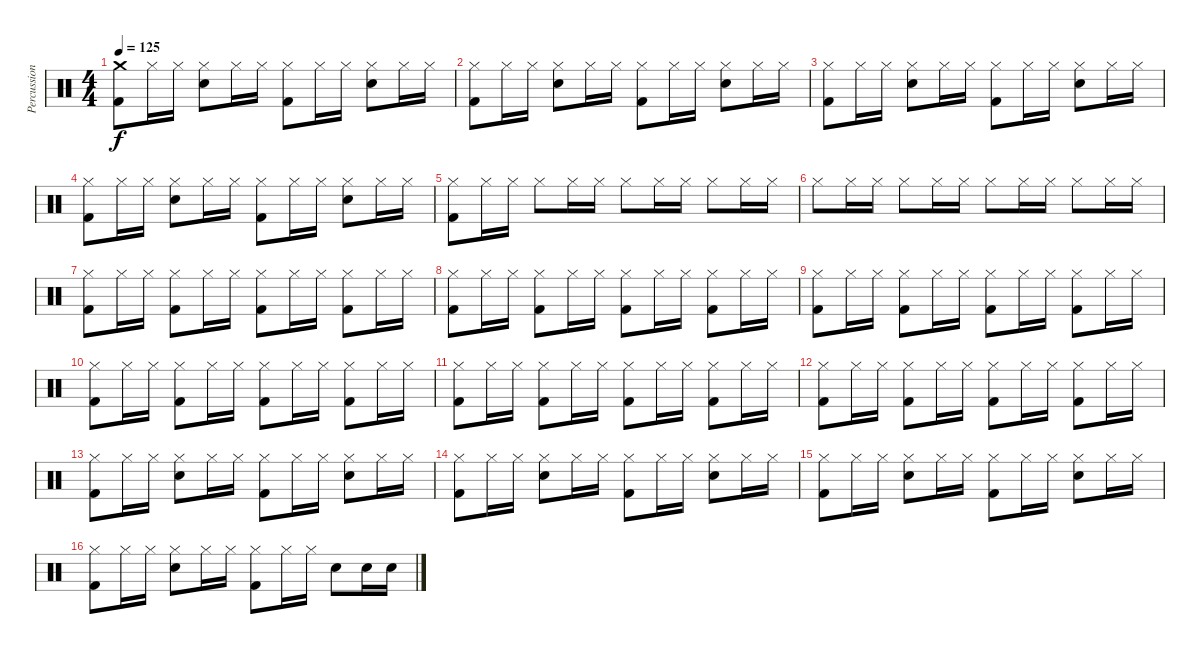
\track ("Percussion" "Percussion") {instrument percussion}
\staff {score}
\articulation defaults
\ts (4 4)
\tempo 125
\clef neutral
\ks c
("Crash medium (hit)" "Kick (hit) 2").8{dy f} "Hi-Hat (closed)".16 "Hi-Hat (closed)".16 ("Hi-Hat (closed)" "Snare (hit) 2").8 "Hi-Hat (closed)".16 "Hi-Hat (closed)".16 ("Hi-Hat (closed)" "Kick (hit) 2").8 "Hi-Hat (closed)".16 "Hi-Hat (closed)".16 ("Hi-Hat (closed)" "Snare (hit) 2").8 "Hi-Hat (closed)".16 "Hi-Hat (closed)".16 |
("Hi-Hat (closed)" "Kick (hit) 2").8 "Hi-Hat (closed)".16 "Hi-Hat (closed)".16 ("Hi-Hat (closed)" "Snare (hit) 2").8 "Hi-Hat (closed)".16 "Hi-Hat (closed)".16 ("Hi-Hat (closed)" "Kick (hit) 2").8 "Hi-Hat (closed)".16 "Hi-Hat (closed)".16 ("Hi-Hat (closed)" "Snare (hit) 2").8 "Hi-Hat (closed)".16 "Hi-Hat (closed)".16 |
("Hi-Hat (closed)" "Kick (hit) 2").8 "Hi-Hat (closed)".16 "Hi-Hat (closed)".16 ("Hi-Hat (closed)" "Snare (hit) 2").8 "Hi-Hat (closed)".16 "Hi-Hat (closed)".16 ("Hi-Hat (closed)" "Kick (hit) 2").8 "Hi-Hat (closed)".16 "Hi-Hat (closed)".16 ("Hi-Hat (closed)" "Snare (hit) 2").8 "Hi-Hat (closed)".16 "Hi-Hat (closed)".16 |
("Hi-Hat (closed)" "Kick (hit) 2").8 "Hi-Hat (closed)".16 "Hi-Hat (closed)".16 ("Hi-Hat (closed)" "Snare (hit) 2").8 "Hi-Hat (closed)".16 "Hi-Hat (closed)".16 ("Hi-Hat (closed)" "Kick (hit) 2").8 "Hi-Hat (closed)".16 "Hi-Hat (closed)".16 ("Hi-Hat (closed)" "Snare (hit) 2").8 "Hi-Hat (closed)".16 "Hi-Hat (closed)".16 |
("Hi-Hat (closed)" "Kick (hit) 2").8 "Hi-Hat (closed)".16 "Hi-Hat (closed)".16 "Hi-Hat (closed)".8 "Hi-Hat (closed)".16 "Hi-Hat (closed)".16 "Hi-Hat (closed)".8 "Hi-Hat (closed)".16 "Hi-Hat (closed)".16 "Hi-Hat (closed)".8 "Hi-Hat (closed)".16 "Hi-Hat (closed)".16 |
"Hi-Hat (closed)".8 "Hi-Hat (closed)".16 "Hi-Hat (closed)".16 "Hi-Hat (closed)".8 "Hi-Hat (closed)".16 "Hi-Hat (closed)".16 "Hi-Hat (closed)".8 "Hi-Hat (closed)".16 "Hi-Hat (closed)".16 "Hi-Hat (closed)".8 "Hi-Hat (closed)".16 "Hi-Hat (closed)".16 |
("Hi-Hat (closed)" "Kick (hit) 2").8 "Hi-Hat (closed)".16 "Hi-Hat (closed)".16 ("Hi-Hat (closed)" "Kick (hit) 2").8 "Hi-Hat (closed)".16 "Hi-Hat (closed)".16 ("Hi-Hat (closed)" "Kick (hit) 2").8 "Hi-Hat (closed)".16 "Hi-Hat (closed)".16 ("Hi-Hat (closed)" "Kick (hit) 2").8 "Hi-Hat (closed)".16 "Hi-Hat (closed)".16 |
("Hi-Hat (closed)" "Kick (hit) 2").8 "Hi-Hat (closed)".16 "Hi-Hat (closed)".16 ("Hi-Hat (closed)" "Kick (hit) 2").8 "Hi-Hat (closed)".16 "Hi-Hat (closed)".16 ("Hi-Hat (closed)" "Kick (hit) 2").8 "Hi-Hat (closed)".16 "Hi-Hat (closed)".16 ("Hi-Hat (closed)" "Kick (hit) 2").8 "Hi-Hat (closed)".16 "Hi-Hat (closed)".16 |
("Hi-Hat (closed)" "Kick (hit) 2").8 "Hi-Hat (closed)".16 "Hi-Hat (closed)".16 ("Hi-Hat (closed)" "Kick (hit) 2").8 "Hi-Hat (closed)".16 "Hi-Hat (closed)".16 ("Hi-Hat (closed)" "Kick (hit) 2").8 "Hi-Hat (closed)".16 "Hi-Hat (closed)".16 ("Hi-Hat (closed)" "Kick (hit) 2").8 "Hi-Hat (closed)".16 "Hi-Hat (closed)".16 |
("Hi-Hat (closed)" "Kick (hit) 2").8 "Hi-Hat (closed)".16 "Hi-Hat (closed)".16 ("Hi-Hat (closed)" "Kick (hit) 2").8 "Hi-Hat (closed)".16 "Hi-Hat (closed)".16 ("Hi-Hat (closed)" "Kick (hit) 2").8 "Hi-Hat (closed)".16 "Hi-Hat (closed)".16 ("Hi-Hat (closed)" "Kick (hit) 2").8 "Hi-Hat (closed)".16 "Hi-Hat (closed)".16 |
("Hi-Hat (closed)" "Kick (hit) 2").8 "Hi-Hat (closed)".16 "Hi-Hat (closed)".16 ("Hi-Hat (closed)" "Kick (hit) 2").8 "Hi-Hat (closed)".16 "Hi-Hat (closed)".16 ("Hi-Hat (closed)" "Kick (hit) 2").8 "Hi-Hat (closed)".16 "Hi-Hat (closed)".16 ("Hi-Hat (closed)" "Kick (hit) 2").8 "Hi-Hat (closed)".16 "Hi-Hat (closed)".16 |
("Hi-Hat (closed)" "Kick (hit) 2").8 "Hi-Hat (closed)".16 "Hi-Hat (closed)".16 ("Hi-Hat (closed)" "Kick (hit) 2").8 "Hi-Hat (closed)".16 "Hi-Hat (closed)".16 ("Hi-Hat (closed)" "Kick (hit) 2").8 "Hi-Hat (closed)".16 "Hi-Hat (closed)".16 ("Hi-Hat (closed)" "Kick (hit) 2").8 "Hi-Hat (closed)".16 "Hi-Hat (closed)".16 |
("Hi-Hat (closed)" "Kick (hit) 2").8 "Hi-Hat (closed)".16 "Hi-Hat (closed)".16 ("Hi-Hat (closed)" "Snare (hit) 2").8 "Hi-Hat (closed)".16 "Hi-Hat (closed)".16 ("Hi-Hat (closed)" "Kick (hit) 2").8 "Hi-Hat (closed)".16 "Hi-Hat (closed)".16 ("Hi-Hat (closed)" "Snare (hit) 2").8 "Hi-Hat (closed)".16 "Hi-Hat (closed)".16 |
("Hi-Hat (closed)" "Kick (hit) 2").8 "Hi-Hat (closed)".16 "Hi-Hat (closed)".16 ("Hi-Hat (closed)" "Snare (hit) 2").8 "Hi-Hat (closed)".16 "Hi-Hat (closed)".16 ("Hi-Hat (closed)" "Kick (hit) 2").8 "Hi-Hat (closed)".16 "Hi-Hat (closed)".16 ("Hi-Hat (closed)" "Snare (hit) 2").8 "Hi-Hat (closed)".16 "Hi-Hat (closed)".16 |
("Hi-Hat (closed)" "Kick (hit) 2").8 "Hi-Hat (closed)".16 "Hi-Hat (closed)".16 ("Hi-Hat (closed)" "Snare (hit) 2").8 "Hi-Hat (closed)".16 "Hi-Hat (closed)".16 ("Hi-Hat (closed)" "Kick (hit) 2").8 "Hi-Hat (closed)".16 "Hi-Hat (closed)".16 ("Hi-Hat (closed)" "Snare (hit) 2").8 "Hi-Hat (closed)".16 "Hi-Hat (closed)".16 |
("Hi-Hat (closed)" "Kick (hit) 2").8 "Hi-Hat (closed)".16 "Hi-Hat (closed)".16 ("Hi-Hat (closed)" "Snare (hit) 2").8 "Hi-Hat (closed)".16 "Hi-Hat (closed)".16 ("Hi-Hat (closed)" "Kick (hit) 2").8 "Hi-Hat (closed)".16 "Hi-Hat (closed)".16 "Snare (hit) 2".8 "Snare (hit) 2".16 "Snare (hit) 2".16
